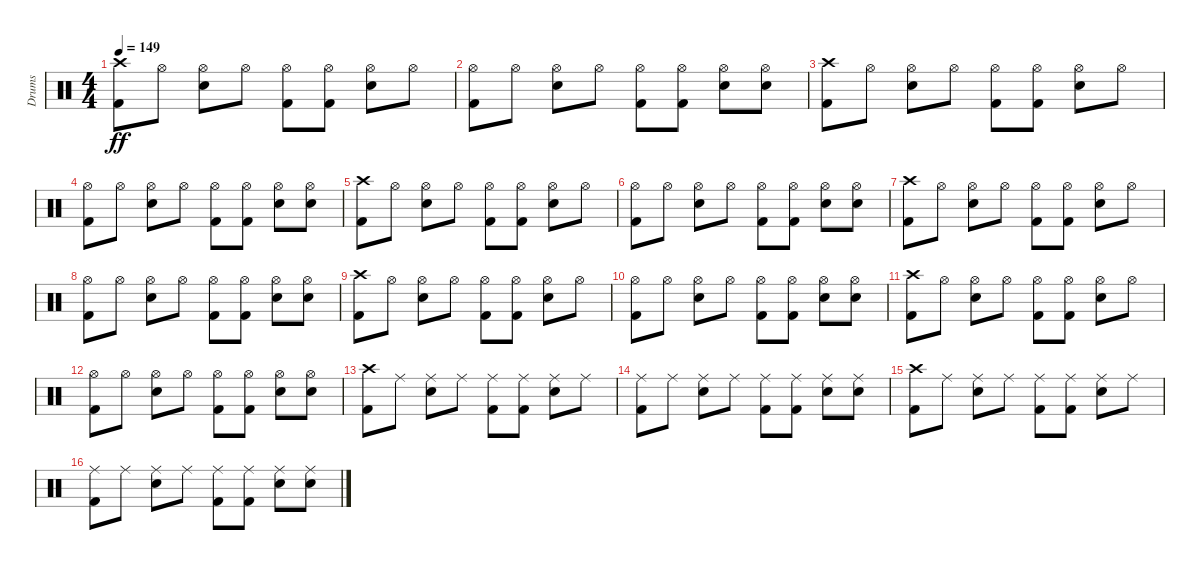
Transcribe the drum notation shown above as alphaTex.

\track ("Drums" "Drums") {instrument percussion}
\staff {score}
\articulation defaults
\ts (4 4)
\tempo 149
\clef neutral
\ks c
("Kick (hit) 2" "Crash high (hit)").8{dy ff} "Hi-Hat (open)".8 ("Snare (hit) 2" "Hi-Hat (open)").8 "Hi-Hat (open)".8 ("Kick (hit) 2" "Hi-Hat (open)").8 ("Kick (hit) 2" "Hi-Hat (open)").8 ("Snare (hit) 2" "Hi-Hat (open)").8 "Hi-Hat (open)".8 |
("Kick (hit) 2" "Hi-Hat (open)").8 "Hi-Hat (open)".8 ("Snare (hit) 2" "Hi-Hat (open)").8 "Hi-Hat (open)".8 ("Kick (hit) 2" "Hi-Hat (open)").8 ("Kick (hit) 2" "Hi-Hat (open)").8 ("Snare (hit) 2" "Hi-Hat (open)").8 ("Snare (hit) 2" "Hi-Hat (open)").8 |
("Kick (hit) 2" "Crash high (hit)").8 "Hi-Hat (open)".8 ("Snare (hit) 2" "Hi-Hat (open)").8 "Hi-Hat (open)".8 ("Kick (hit) 2" "Hi-Hat (open)").8 ("Kick (hit) 2" "Hi-Hat (open)").8 ("Snare (hit) 2" "Hi-Hat (open)").8 "Hi-Hat (open)".8 |
("Kick (hit) 2" "Hi-Hat (open)").8 "Hi-Hat (open)".8 ("Snare (hit) 2" "Hi-Hat (open)").8 "Hi-Hat (open)".8 ("Kick (hit) 2" "Hi-Hat (open)").8 ("Kick (hit) 2" "Hi-Hat (open)").8 ("Snare (hit) 2" "Hi-Hat (open)").8 ("Snare (hit) 2" "Hi-Hat (open)").8 |
("Kick (hit) 2" "Crash high (hit)").8 "Hi-Hat (open)".8 ("Snare (hit) 2" "Hi-Hat (open)").8 "Hi-Hat (open)".8 ("Kick (hit) 2" "Hi-Hat (open)").8 ("Kick (hit) 2" "Hi-Hat (open)").8 ("Snare (hit) 2" "Hi-Hat (open)").8 "Hi-Hat (open)".8 |
("Kick (hit) 2" "Hi-Hat (open)").8 "Hi-Hat (open)".8 ("Snare (hit) 2" "Hi-Hat (open)").8 "Hi-Hat (open)".8 ("Kick (hit) 2" "Hi-Hat (open)").8 ("Kick (hit) 2" "Hi-Hat (open)").8 ("Snare (hit) 2" "Hi-Hat (open)").8 ("Snare (hit) 2" "Hi-Hat (open)").8 |
("Kick (hit) 2" "Crash high (hit)").8 "Hi-Hat (open)".8 ("Snare (hit) 2" "Hi-Hat (open)").8 "Hi-Hat (open)".8 ("Kick (hit) 2" "Hi-Hat (open)").8 ("Kick (hit) 2" "Hi-Hat (open)").8 ("Snare (hit) 2" "Hi-Hat (open)").8 "Hi-Hat (open)".8 |
("Kick (hit) 2" "Hi-Hat (open)").8 "Hi-Hat (open)".8 ("Snare (hit) 2" "Hi-Hat (open)").8 "Hi-Hat (open)".8 ("Kick (hit) 2" "Hi-Hat (open)").8 ("Kick (hit) 2" "Hi-Hat (open)").8 ("Snare (hit) 2" "Hi-Hat (open)").8 ("Snare (hit) 2" "Hi-Hat (open)").8 |
("Kick (hit) 2" "Crash high (hit)").8 "Hi-Hat (open)".8 ("Snare (hit) 2" "Hi-Hat (open)").8 "Hi-Hat (open)".8 ("Kick (hit) 2" "Hi-Hat (open)").8 ("Kick (hit) 2" "Hi-Hat (open)").8 ("Snare (hit) 2" "Hi-Hat (open)").8 "Hi-Hat (open)".8 |
("Kick (hit) 2" "Hi-Hat (open)").8 "Hi-Hat (open)".8 ("Snare (hit) 2" "Hi-Hat (open)").8 "Hi-Hat (open)".8 ("Kick (hit) 2" "Hi-Hat (open)").8 ("Kick (hit) 2" "Hi-Hat (open)").8 ("Snare (hit) 2" "Hi-Hat (open)").8 ("Snare (hit) 2" "Hi-Hat (open)").8 |
("Kick (hit) 2" "Crash high (hit)").8 "Hi-Hat (open)".8 ("Snare (hit) 2" "Hi-Hat (open)").8 "Hi-Hat (open)".8 ("Kick (hit) 2" "Hi-Hat (open)").8 ("Kick (hit) 2" "Hi-Hat (open)").8 ("Snare (hit) 2" "Hi-Hat (open)").8 "Hi-Hat (open)".8 |
("Kick (hit) 2" "Hi-Hat (open)").8 "Hi-Hat (open)".8 ("Snare (hit) 2" "Hi-Hat (open)").8 "Hi-Hat (open)".8 ("Kick (hit) 2" "Hi-Hat (open)").8 ("Kick (hit) 2" "Hi-Hat (open)").8 ("Snare (hit) 2" "Hi-Hat (open)").8 ("Snare (hit) 2" "Hi-Hat (open)").8 |
("Kick (hit) 2" "Crash high (hit)").8 "Ride (middle)".8 ("Snare (hit) 2" "Ride (middle)").8 "Ride (middle)".8 ("Kick (hit) 2" "Ride (middle)").8 ("Kick (hit) 2" "Ride (middle)").8 ("Snare (hit) 2" "Ride (middle)").8 "Ride (middle)".8 |
("Kick (hit) 2" "Ride (middle)").8 "Ride (middle)".8 ("Snare (hit) 2" "Ride (middle)").8 "Ride (middle)".8 ("Kick (hit) 2" "Ride (middle)").8 ("Kick (hit) 2" "Ride (middle)").8 ("Snare (hit) 2" "Ride (middle)").8 ("Snare (hit) 2" "Ride (middle)").8 |
("Kick (hit) 2" "Crash high (hit)").8 "Ride (middle)".8 ("Snare (hit) 2" "Ride (middle)").8 "Ride (middle)".8 ("Kick (hit) 2" "Ride (middle)").8 ("Kick (hit) 2" "Ride (middle)").8 ("Snare (hit) 2" "Ride (middle)").8 "Ride (middle)".8 |
("Kick (hit) 2" "Ride (middle)").8 "Ride (middle)".8 ("Snare (hit) 2" "Ride (middle)").8 "Ride (middle)".8 ("Kick (hit) 2" "Ride (middle)").8 ("Kick (hit) 2" "Ride (middle)").8 ("Snare (hit) 2" "Ride (middle)").8 ("Snare (hit) 2" "Ride (middle)").8
